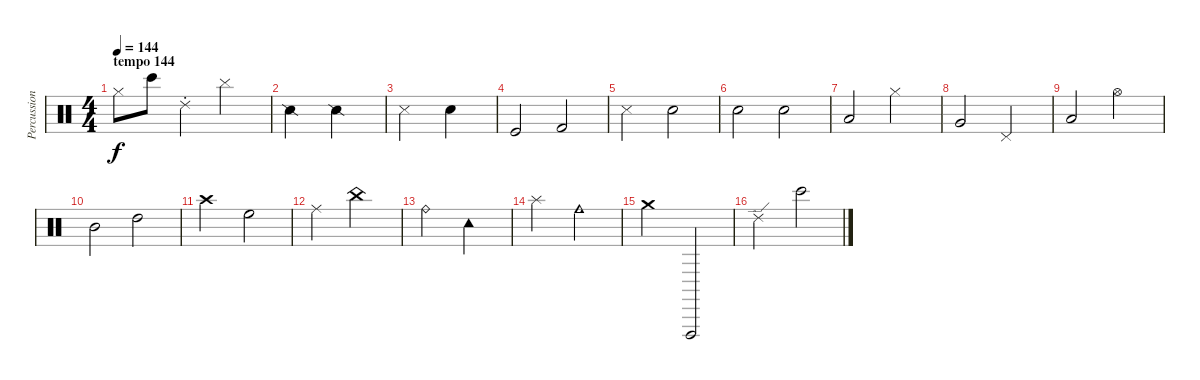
\track ("Percussions" "Percussion") {instrument percussion}
\staff {score}
\articulation defaults
\ts (4 4)
\section ("" "tempo 144")
\tempo 144
\clef neutral
\ks c "Hi-Hat (closed)".8{dy f} "Bongo High (hit)".8 "Ride (choke) 2".4 "Cymbal (hit)".2
|
"Snare (side stick) 2".2 "Snare (side stick) 2".2 |
"Metronome (hit)".2 "Metronome (bell)".2 |
"Kick (hit)".2 "Kick (hit) 2".2 |
"Snare (side stick) 3".2 "Snare (hit) 2".2 |
"Hand Clap (hit)".2 "Electric Snare (hit)".2 |
"Low Floor Tom (hit)".2 "Hi-Hat (closed)".2 |
"Very Low Tom (hit)".2 "Pedal Hi-Hat (hit)".2 |
"Low Tom (hit)".2 "Hi-Hat (open)".2 |
"Mid Tom (hit)".2 "High Tom (hit)".2 |
"Crash high (hit)".2 "High Floor Tom (hit)".2 |
"Ride (middle)".2 "China (hit)".2 |
"Ride (bell)".2 "Tambourine (hit)".2 |
"Splash (hit)".2 "Cowbell medium (hit)".2 |
"Crash medium (hit)".2 "Vibraslap (hit)".2 |
"Ride (edge) 2".2 "Bongo High (hit)".2
